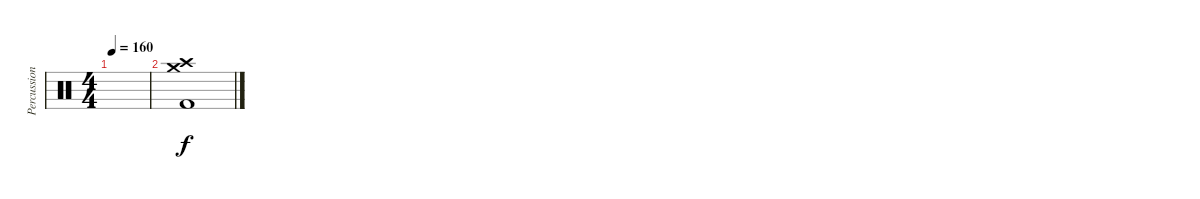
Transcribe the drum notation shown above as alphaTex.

\track ("Percussion" "Percussion") {instrument percussion}
\staff {score}
\articulation defaults
\ts (4 4)
\tempo 160
\clef neutral
\ks c
|
("Crash medium (hit)" "Crash high (hit)" "Kick (hit) 2").1
